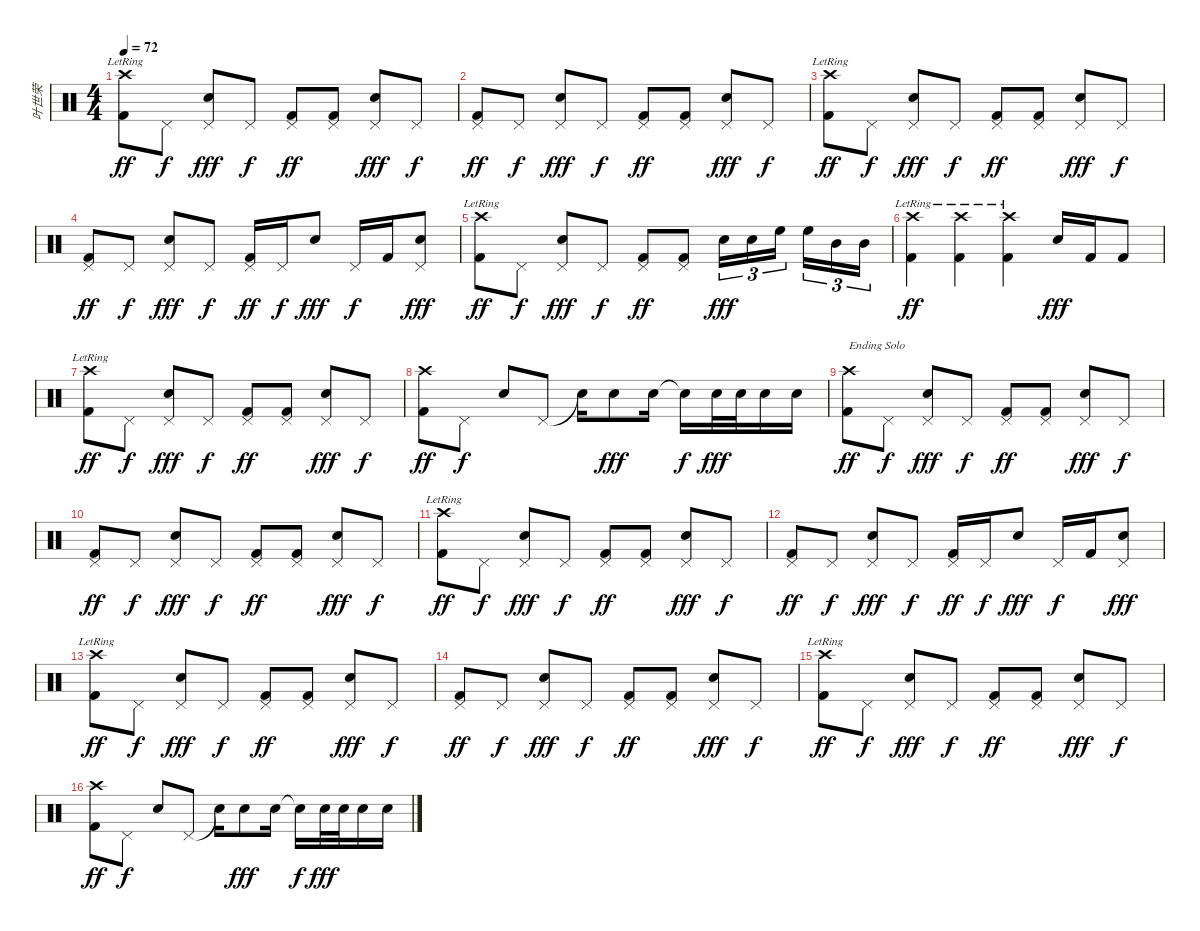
\track ("叶世荣" "叶世荣") {instrument percussion}
\staff {score}
\articulation defaults
\ts (4 4)
\tempo 72
\clef neutral
\ks c
("Crash high (hit)"{lr} "Kick (hit) 2").8{dy ff} "Pedal Hi-Hat (hit)".8{dy f} ("Pedal Hi-Hat (hit)" "Electric Snare (hit)").8{dy fff} "Pedal Hi-Hat (hit)".8{dy f} ("Pedal Hi-Hat (hit)" "Kick (hit) 2").8{dy ff} ("Pedal Hi-Hat (hit)" "Kick (hit) 2").8 ("Pedal Hi-Hat (hit)" "Electric Snare (hit)").8{dy fff} "Pedal Hi-Hat (hit)".8{dy f} |
("Pedal Hi-Hat (hit)" "Kick (hit) 2").8{dy ff} "Pedal Hi-Hat (hit)".8{dy f} ("Pedal Hi-Hat (hit)" "Electric Snare (hit)").8{dy fff} "Pedal Hi-Hat (hit)".8{dy f} ("Pedal Hi-Hat (hit)" "Kick (hit) 2").8{dy ff} ("Pedal Hi-Hat (hit)" "Kick (hit) 2").8 ("Pedal Hi-Hat (hit)" "Electric Snare (hit)").8{dy fff} "Pedal Hi-Hat (hit)".8{dy f} |
("Crash high (hit)"{lr} "Kick (hit) 2").8{dy ff} "Pedal Hi-Hat (hit)".8{dy f} ("Pedal Hi-Hat (hit)" "Electric Snare (hit)").8{dy fff} "Pedal Hi-Hat (hit)".8{dy f} ("Pedal Hi-Hat (hit)" "Kick (hit) 2").8{dy ff} ("Pedal Hi-Hat (hit)" "Kick (hit) 2").8 ("Pedal Hi-Hat (hit)" "Electric Snare (hit)").8{dy fff} "Pedal Hi-Hat (hit)".8{dy f} |
("Pedal Hi-Hat (hit)" "Kick (hit) 2").8{dy ff} "Pedal Hi-Hat (hit)".8{dy f} ("Pedal Hi-Hat (hit)" "Electric Snare (hit)").8{dy fff} "Pedal Hi-Hat (hit)".8{dy f} ("Pedal Hi-Hat (hit)" "Kick (hit) 2").16{dy ff} "Pedal Hi-Hat (hit)".16{dy f} "Electric Snare (hit)".8{dy fff} "Pedal Hi-Hat (hit)".16{dy f} "Kick (hit) 2".16 ("Pedal Hi-Hat (hit)" "Electric Snare (hit)").8{dy fff} |
("Crash high (hit)"{lr} "Kick (hit) 2").8{dy ff} "Pedal Hi-Hat (hit)".8{dy f} ("Pedal Hi-Hat (hit)" "Electric Snare (hit)").8{dy fff} "Pedal Hi-Hat (hit)".8{dy f} ("Pedal Hi-Hat (hit)" "Kick (hit) 2").8{dy ff} ("Pedal Hi-Hat (hit)" "Kick (hit) 2").8 "Electric Snare (hit)".16{tu (3 2) dy fff} "Electric Snare (hit)".16{tu (3 2)} "High Floor Tom (hit)".16{tu (3 2)} "High Floor Tom (hit)".16{tu (3 2)} "Mid Tom (hit)".16{tu (3 2)} "Mid Tom (hit)".16{tu (3 2)} |
("Crash high (hit)"{lr} "Kick (hit) 2").4{dy ff} ("Crash high (hit)"{lr} "Kick (hit) 2").4 ("Crash high (hit)"{lr} "Kick (hit) 2").4 "Electric Snare (hit)".16{dy fff} "Kick (hit) 2".16 "Kick (hit) 2".8 |
("Crash high (hit)"{lr} "Kick (hit) 2").8{dy ff} "Pedal Hi-Hat (hit)".8{dy f} ("Pedal Hi-Hat (hit)" "Electric Snare (hit)").8{dy fff} "Pedal Hi-Hat (hit)".8{dy f} ("Pedal Hi-Hat (hit)" "Kick (hit) 2").8{dy ff} ("Pedal Hi-Hat (hit)" "Kick (hit) 2").8 ("Pedal Hi-Hat (hit)" "Electric Snare (hit)").8{dy fff} "Pedal Hi-Hat (hit)".8{dy f} |
("Crash high (hit)" "Kick (hit) 2").8{dy ff} "Pedal Hi-Hat (hit)".8{dy f} "Electric Snare (hit)".8 "Pedal Hi-Hat (hit)".8 "Snare (hit)"{t}.16 "Electric Snare (hit)".8{dy fff} "Electric Snare (hit)".16 "Snare (hit)"{t}.16{dy f} "Electric Snare (hit)".32{dy fff} "Electric Snare (hit)".32 "Electric Snare (hit)".16 "Electric Snare (hit)".16 |
("Crash high (hit)" "Kick (hit) 2").8{txt "Ending Solo" dy ff} "Pedal Hi-Hat (hit)".8{dy f} ("Pedal Hi-Hat (hit)" "Electric Snare (hit)").8{dy fff} "Pedal Hi-Hat (hit)".8{dy f} ("Pedal Hi-Hat (hit)" "Kick (hit) 2").8{dy ff} ("Pedal Hi-Hat (hit)" "Kick (hit) 2").8 ("Pedal Hi-Hat (hit)" "Electric Snare (hit)").8{dy fff} "Pedal Hi-Hat (hit)".8{dy f} |
("Pedal Hi-Hat (hit)" "Kick (hit) 2").8{dy ff} "Pedal Hi-Hat (hit)".8{dy f} ("Pedal Hi-Hat (hit)" "Electric Snare (hit)").8{dy fff} "Pedal Hi-Hat (hit)".8{dy f} ("Pedal Hi-Hat (hit)" "Kick (hit) 2").8{dy ff} ("Pedal Hi-Hat (hit)" "Kick (hit) 2").8 ("Pedal Hi-Hat (hit)" "Electric Snare (hit)").8{dy fff} "Pedal Hi-Hat (hit)".8{dy f} |
("Crash high (hit)"{lr} "Kick (hit) 2").8{dy ff} "Pedal Hi-Hat (hit)".8{dy f} ("Pedal Hi-Hat (hit)" "Electric Snare (hit)").8{dy fff} "Pedal Hi-Hat (hit)".8{dy f} ("Pedal Hi-Hat (hit)" "Kick (hit) 2").8{dy ff} ("Pedal Hi-Hat (hit)" "Kick (hit) 2").8 ("Pedal Hi-Hat (hit)" "Electric Snare (hit)").8{dy fff} "Pedal Hi-Hat (hit)".8{dy f} |
("Pedal Hi-Hat (hit)" "Kick (hit) 2").8{dy ff} "Pedal Hi-Hat (hit)".8{dy f} ("Pedal Hi-Hat (hit)" "Electric Snare (hit)").8{dy fff} "Pedal Hi-Hat (hit)".8{dy f} ("Pedal Hi-Hat (hit)" "Kick (hit) 2").16{dy ff} "Pedal Hi-Hat (hit)".16{dy f} "Electric Snare (hit)".8{dy fff} "Pedal Hi-Hat (hit)".16{dy f} "Kick (hit) 2".16 ("Pedal Hi-Hat (hit)" "Electric Snare (hit)").8{dy fff} |
("Crash high (hit)"{lr} "Kick (hit) 2").8{dy ff} "Pedal Hi-Hat (hit)".8{dy f} ("Pedal Hi-Hat (hit)" "Electric Snare (hit)").8{dy fff} "Pedal Hi-Hat (hit)".8{dy f} ("Pedal Hi-Hat (hit)" "Kick (hit) 2").8{dy ff} ("Pedal Hi-Hat (hit)" "Kick (hit) 2").8 ("Pedal Hi-Hat (hit)" "Electric Snare (hit)").8{dy fff} "Pedal Hi-Hat (hit)".8{dy f} |
("Pedal Hi-Hat (hit)" "Kick (hit) 2").8{dy ff} "Pedal Hi-Hat (hit)".8{dy f} ("Pedal Hi-Hat (hit)" "Electric Snare (hit)").8{dy fff} "Pedal Hi-Hat (hit)".8{dy f} ("Pedal Hi-Hat (hit)" "Kick (hit) 2").8{dy ff} ("Pedal Hi-Hat (hit)" "Kick (hit) 2").8 ("Pedal Hi-Hat (hit)" "Electric Snare (hit)").8{dy fff} "Pedal Hi-Hat (hit)".8{dy f} |
("Crash high (hit)"{lr} "Kick (hit) 2").8{dy ff} "Pedal Hi-Hat (hit)".8{dy f} ("Pedal Hi-Hat (hit)" "Electric Snare (hit)").8{dy fff} "Pedal Hi-Hat (hit)".8{dy f} ("Pedal Hi-Hat (hit)" "Kick (hit) 2").8{dy ff} ("Pedal Hi-Hat (hit)" "Kick (hit) 2").8 ("Pedal Hi-Hat (hit)" "Electric Snare (hit)").8{dy fff} "Pedal Hi-Hat (hit)".8{dy f} |
("Crash high (hit)" "Kick (hit) 2").8{dy ff} "Pedal Hi-Hat (hit)".8{dy f} "Electric Snare (hit)".8 "Pedal Hi-Hat (hit)".8 "Snare (hit)"{t}.16 "Electric Snare (hit)".8{dy fff} "Electric Snare (hit)".16 "Snare (hit)"{t}.16{dy f} "Electric Snare (hit)".32{dy fff} "Electric Snare (hit)".32 "Electric Snare (hit)".16 "Electric Snare (hit)".16
